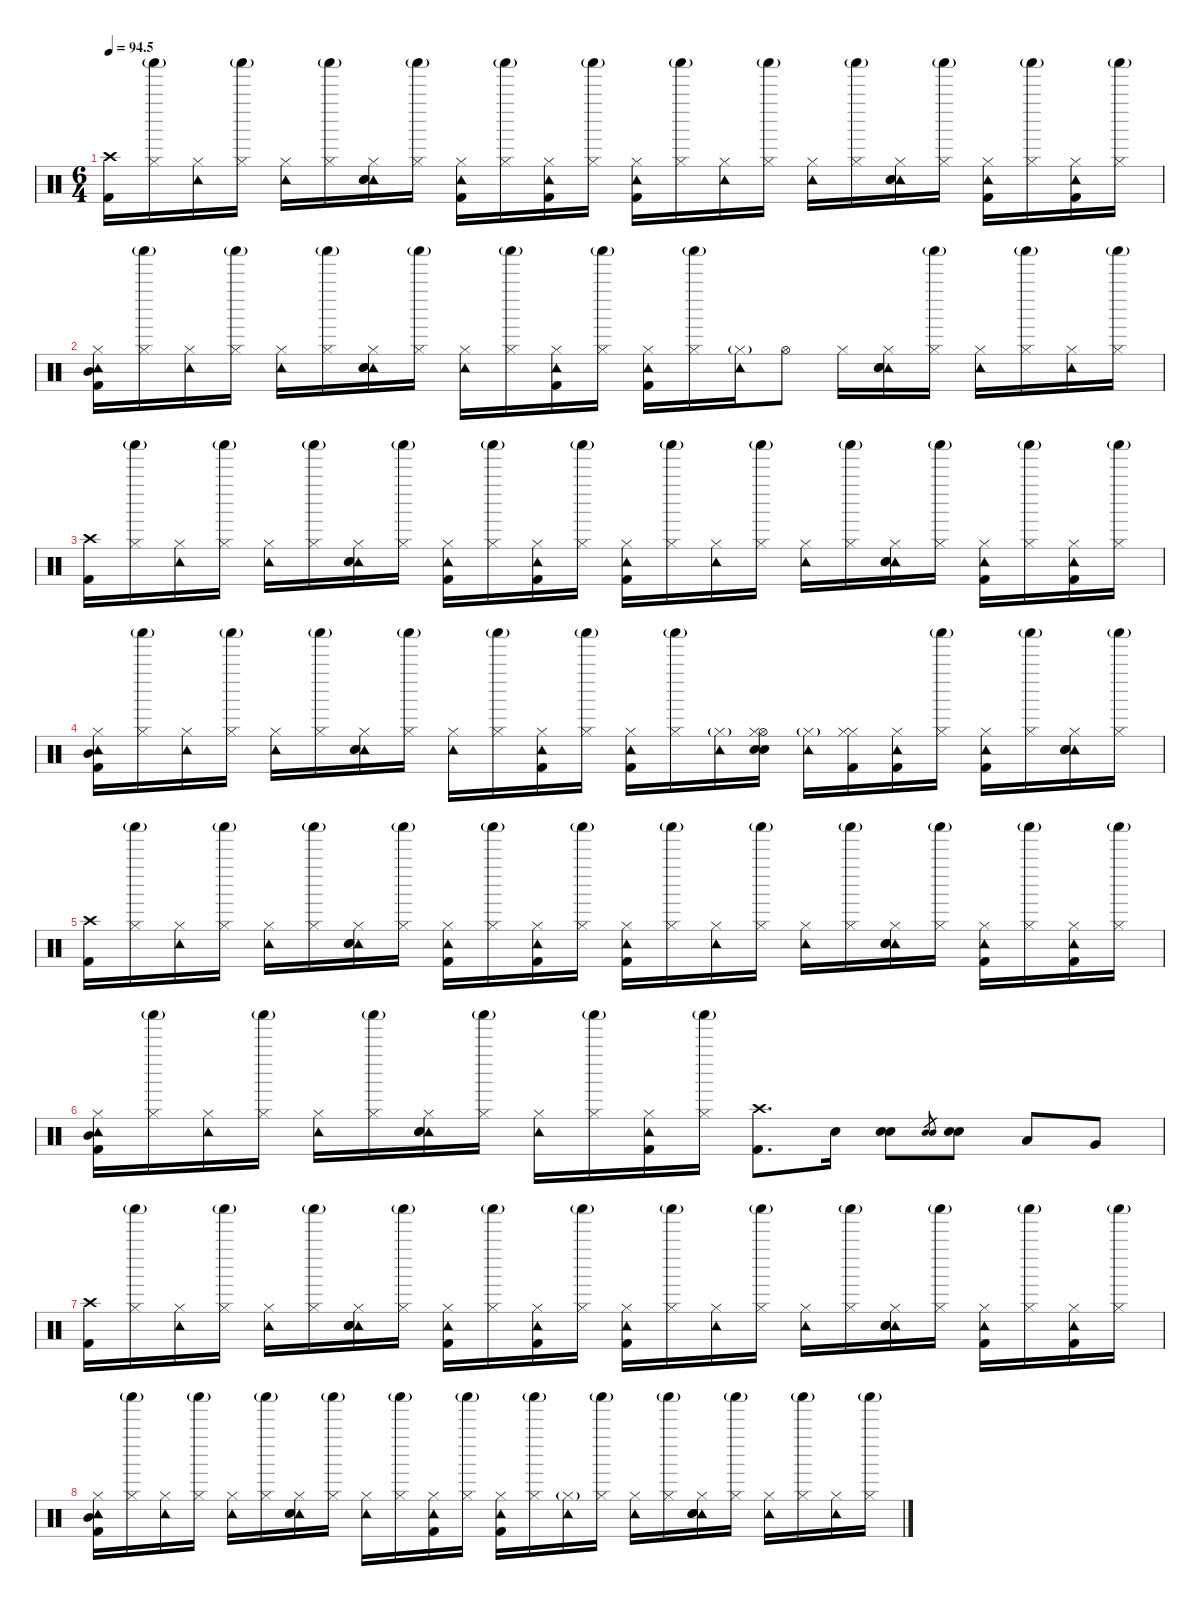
\defaultSystemsLayout 4
\hideDynamics
\bracketExtendMode nobrackets
\singleTrackTrackNamePolicy hidden
\multiTrackTrackNamePolicy hidden
\firstSystemTrackNameMode fullname
\firstSystemTrackNameOrientation horizontal
\otherSystemsTrackNameOrientation horizontal
\track ("Drums" "drm.") {defaultSystemsLayout 2 instrument percussion}
\staff {score}
\articulation defaults
\ts (6 4)
\tempo
94.5
\accidentals auto
\clef neutral
\ottava regular
\simile none
\ks c
("Crash high (hit)" "Kick (hit) 2").16{dy fff beam Down} ("Shaker (hit)"{g} "Hi-Hat (closed)").16{dy mf beam Down} ("Hi-Hat (closed)" "Tambourine (hit)").16{dy f beam Down} ("Shaker (hit)"{g} "Hi-Hat (closed)").16{dy mf beam Down} ("Hi-Hat (closed)" "Tambourine (hit)").16{dy f beam Down} ("Shaker (hit)"{g} "Hi-Hat (closed)").16{dy mf beam Down} ("Hi-Hat (closed)" "Tambourine (hit)" "Snare (hit) 2" "Metronome (bell)").16{dy f beam Down} ("Shaker (hit)"{g} "Hi-Hat (closed)").16{dy mf beam Down} ("Hi-Hat (closed)" "Tambourine (hit)" "Kick (hit) 2").16{dy f beam Down} ("Shaker (hit)"{g} "Hi-Hat (closed)").16{dy mf beam Down} ("Hi-Hat (closed)" "Tambourine (hit)" "Kick (hit) 2").16{dy f beam Down} ("Shaker (hit)"{g} "Hi-Hat (closed)").16{dy mf beam Down} ("Hi-Hat (closed)" "Tambourine (hit)" "Kick (hit) 2").16{dy f beam Down} ("Shaker (hit)"{g} "Hi-Hat (closed)").16{dy mf beam Down} ("Hi-Hat (closed)" "Tambourine (hit)").16{dy f beam Down} ("Shaker (hit)"{g} "Hi-Hat (closed)").16{dy mf beam Down} ("Hi-Hat (closed)" "Tambourine (hit)").16{dy f beam Down} ("Shaker (hit)"{g} "Hi-Hat (closed)").16{dy mf beam Down} ("Hi-Hat (closed)" "Tambourine (hit)" "Snare (hit) 2" "Metronome (bell)").16{dy f beam Down} ("Shaker (hit)"{g} "Hi-Hat (closed)").16{dy mf beam Down} ("Hi-Hat (closed)" "Tambourine (hit)" "Kick (hit) 2").16{dy f beam Down} ("Shaker (hit)"{g} "Hi-Hat (closed)").16{dy mf beam Down} ("Hi-Hat (closed)" "Tambourine (hit)" "Kick (hit) 2").16{dy f beam Down} ("Shaker (hit)"{g} "Hi-Hat (closed)").16{dy mf beam Down} |
("Hi-Hat (closed)" "Tambourine (hit)" "Mid Tom (hit)" "Kick (hit) 2").16{dy f beam Down} ("Shaker (hit)"{g} "Hi-Hat (closed)").16{dy mf beam Down} ("Hi-Hat (closed)" "Tambourine (hit)").16{dy f beam Down} ("Shaker (hit)"{g} "Hi-Hat (closed)").16{dy mf beam Down} ("Hi-Hat (closed)" "Tambourine (hit)").16{dy f beam Down} ("Shaker (hit)"{g} "Hi-Hat (closed)").16{dy mf beam Down} ("Hi-Hat (closed)" "Tambourine (hit)" "Snare (hit) 2" "Metronome (bell)").16{dy f beam Down} ("Shaker (hit)"{g} "Hi-Hat (closed)").16{dy mf beam Down} ("Hi-Hat (closed)" "Tambourine (hit)").16{dy f beam Down} ("Shaker (hit)"{g} "Hi-Hat (closed)").16{dy mf beam Down} ("Hi-Hat (closed)" "Tambourine (hit)" "Kick (hit) 2").16{dy f beam Down} ("Shaker (hit)"{g} "Hi-Hat (closed)").16{dy mf beam Down} ("Hi-Hat (closed)" "Tambourine (hit)" "Kick (hit) 2").16{dy f beam Down} ("Shaker (hit)"{g} "Hi-Hat (closed)").16{dy mf beam Down} ("Hi-Hat (closed)"{g} "Tambourine (hit)").16{dy mp beam Down} "Hi-Hat (open)".8{dy fff beam Down} "Hi-Hat (closed)".16{dy mf beam Down} ("Hi-Hat (closed)" "Tambourine (hit)" "Snare (hit) 2" "Metronome (bell)").16{dy f beam Down} ("Shaker (hit)"{g} "Hi-Hat (closed)").16{dy mf beam Down} ("Hi-Hat (closed)" "Tambourine (hit)").16{dy f beam Down} ("Shaker (hit)"{g} "Hi-Hat (closed)").16{dy mf beam Down} ("Hi-Hat (closed)" "Tambourine (hit)").16{dy f beam Down} ("Shaker (hit)"{g} "Hi-Hat (closed)").16{dy mf beam Down} |
("Crash high (hit)" "Kick (hit) 2").16{dy fff beam Down} ("Shaker (hit)"{g} "Hi-Hat (closed)").16{dy mf beam Down} ("Hi-Hat (closed)" "Tambourine (hit)").16{dy f beam Down} ("Shaker (hit)"{g} "Hi-Hat (closed)").16{dy mf beam Down} ("Hi-Hat (closed)" "Tambourine (hit)").16{dy f beam Down} ("Shaker (hit)"{g} "Hi-Hat (closed)").16{dy mf beam Down} ("Hi-Hat (closed)" "Tambourine (hit)" "Snare (hit) 2" "Metronome (bell)").16{dy f beam Down} ("Shaker (hit)"{g} "Hi-Hat (closed)").16{dy mf beam Down} ("Hi-Hat (closed)" "Tambourine (hit)" "Kick (hit) 2").16{dy f beam Down} ("Shaker (hit)"{g} "Hi-Hat (closed)").16{dy mf beam Down} ("Hi-Hat (closed)" "Tambourine (hit)" "Kick (hit) 2").16{dy f beam Down} ("Shaker (hit)"{g} "Hi-Hat (closed)").16{dy mf beam Down} ("Hi-Hat (closed)" "Tambourine (hit)" "Kick (hit) 2").16{dy f beam Down} ("Shaker (hit)"{g} "Hi-Hat (closed)").16{dy mf beam Down} ("Hi-Hat (closed)" "Tambourine (hit)").16{dy f beam Down} ("Shaker (hit)"{g} "Hi-Hat (closed)").16{dy mf beam Down} ("Hi-Hat (closed)" "Tambourine (hit)").16{dy f beam Down} ("Shaker (hit)"{g} "Hi-Hat (closed)").16{dy mf beam Down} ("Hi-Hat (closed)" "Tambourine (hit)" "Snare (hit) 2" "Metronome (bell)").16{dy f beam Down} ("Shaker (hit)"{g} "Hi-Hat (closed)").16{dy mf beam Down} ("Hi-Hat (closed)" "Tambourine (hit)" "Kick (hit) 2").16{dy f beam Down} ("Shaker (hit)"{g} "Hi-Hat (closed)").16{dy mf beam Down} ("Hi-Hat (closed)" "Tambourine (hit)" "Kick (hit) 2").16{dy f beam Down} ("Shaker (hit)"{g} "Hi-Hat (closed)").16{dy mf beam Down} |
("Hi-Hat (closed)" "Tambourine (hit)" "Mid Tom (hit)" "Kick (hit) 2").16{dy f beam Down} ("Shaker (hit)"{g} "Hi-Hat (closed)").16{dy mf beam Down} ("Hi-Hat (closed)" "Tambourine (hit)").16{dy f beam Down} ("Shaker (hit)"{g} "Hi-Hat (closed)").16{dy mf beam Down} ("Hi-Hat (closed)" "Tambourine (hit)").16{dy f beam Down} ("Shaker (hit)"{g} "Hi-Hat (closed)").16{dy mf beam Down} ("Hi-Hat (closed)" "Tambourine (hit)" "Snare (hit) 2" "Metronome (bell)").16{dy f beam Down} ("Shaker (hit)"{g} "Hi-Hat (closed)").16{dy mf beam Down} ("Hi-Hat (closed)" "Tambourine (hit)").16{dy f beam Down} ("Shaker (hit)"{g} "Hi-Hat (closed)").16{dy mf beam Down} ("Hi-Hat (closed)" "Tambourine (hit)" "Kick (hit) 2").16{dy f beam Down} ("Shaker (hit)"{g} "Hi-Hat (closed)").16{dy mf beam Down} ("Hi-Hat (closed)" "Tambourine (hit)" "Kick (hit) 2").16{dy f beam Down} ("Shaker (hit)"{g} "Hi-Hat (closed)").16{dy mf beam Down} ("Hi-Hat (closed)"{g} "Tambourine (hit)").16{dy mp beam Down} ("Hi-Hat (open)" "Hi-Hat (closed)" "Snare (hit) 2" "Metronome (bell)").16{dy f beam Down} ("Hi-Hat (closed)"{g} "Tambourine (hit)").16{dy mp beam Down} ("Hi-Hat (closed)" "Hi-Hat (closed)" "Kick (hit) 2").16{beam Down} ("Hi-Hat (closed)" "Tambourine (hit)" "Kick (hit) 2").16{dy f beam Down} ("Shaker (hit)"{g} "Hi-Hat (closed)").16{dy mf beam Down} ("Hi-Hat (closed)" "Tambourine (hit)" "Kick (hit) 2").16{dy f beam Down} ("Shaker (hit)"{g} "Hi-Hat (closed)").16{dy mf beam Down} ("Hi-Hat (closed)" "Tambourine (hit)" "Snare (hit) 2" "Metronome (bell)").16{dy f beam Down} ("Shaker (hit)"{g} "Hi-Hat (closed)").16{dy mf beam Down} |
("Crash high (hit)" "Kick (hit) 2").16{dy fff beam Down} ("Shaker (hit)"{g} "Hi-Hat (closed)").16{dy mf beam Down} ("Hi-Hat (closed)" "Tambourine (hit)").16{dy f beam Down} ("Shaker (hit)"{g} "Hi-Hat (closed)").16{dy mf beam Down} ("Hi-Hat (closed)" "Tambourine (hit)").16{dy f beam Down} ("Shaker (hit)"{g} "Hi-Hat (closed)").16{dy mf beam Down} ("Hi-Hat (closed)" "Tambourine (hit)" "Snare (hit) 2" "Metronome (bell)").16{dy f beam Down} ("Shaker (hit)"{g} "Hi-Hat (closed)").16{dy mf beam Down} ("Hi-Hat (closed)" "Tambourine (hit)" "Kick (hit) 2").16{dy f beam Down} ("Shaker (hit)"{g} "Hi-Hat (closed)").16{dy mf beam Down} ("Hi-Hat (closed)" "Tambourine (hit)" "Kick (hit) 2").16{dy f beam Down} ("Shaker (hit)"{g} "Hi-Hat (closed)").16{dy mf beam Down} ("Hi-Hat (closed)" "Tambourine (hit)" "Kick (hit) 2").16{dy f beam Down} ("Shaker (hit)"{g} "Hi-Hat (closed)").16{dy mf beam Down} ("Hi-Hat (closed)" "Tambourine (hit)").16{dy f beam Down} ("Shaker (hit)"{g} "Hi-Hat (closed)").16{dy mf beam Down} ("Hi-Hat (closed)" "Tambourine (hit)").16{dy f beam Down} ("Shaker (hit)"{g} "Hi-Hat (closed)").16{dy mf beam Down} ("Hi-Hat (closed)" "Tambourine (hit)" "Snare (hit) 2" "Metronome (bell)").16{dy f beam Down} ("Shaker (hit)"{g} "Hi-Hat (closed)").16{dy mf beam Down} ("Hi-Hat (closed)" "Tambourine (hit)" "Kick (hit) 2").16{dy f beam Down} ("Shaker (hit)"{g} "Hi-Hat (closed)").16{dy mf beam Down} ("Hi-Hat (closed)" "Tambourine (hit)" "Kick (hit) 2").16{dy f beam Down} ("Shaker (hit)"{g} "Hi-Hat (closed)").16{dy mf beam Down} |
("Hi-Hat (closed)" "Tambourine (hit)" "Mid Tom (hit)" "Kick (hit) 2").16{dy f beam Down} ("Shaker (hit)"{g} "Hi-Hat (closed)").16{dy mf beam Down} ("Hi-Hat (closed)" "Tambourine (hit)").16{dy f beam Down} ("Shaker (hit)"{g} "Hi-Hat (closed)").16{dy mf beam Down} ("Hi-Hat (closed)" "Tambourine (hit)").16{dy f beam Down} ("Shaker (hit)"{g} "Hi-Hat (closed)").16{dy mf beam Down} ("Hi-Hat (closed)" "Tambourine (hit)" "Snare (hit) 2" "Metronome (bell)").16{dy f beam Down} ("Shaker (hit)"{g} "Hi-Hat (closed)").16{dy mf beam Down} ("Hi-Hat (closed)" "Tambourine (hit)").16{dy f beam Down} ("Shaker (hit)"{g} "Hi-Hat (closed)").16{dy mf beam Down} ("Hi-Hat (closed)" "Tambourine (hit)" "Kick (hit) 2").16{dy f beam Down} ("Shaker (hit)"{g} "Hi-Hat (closed)").16{dy mf beam Down} ("Crash high (hit)" "Kick (hit) 2").8{d dy fff beam Down} "Snare (hit) 2".16{dy f beam Down} ("Snare (hit) 2" "Metronome (bell)").8{beam Down} ("Electric Snare (hit)" "Metronome (bell)").8{gr dy mp beam Up} ("Snare (hit) 2" "Metronome (bell)").8{dy f beam Up} "Low Tom (hit)".8{dy ff beam Up} "Very Low Tom (hit)".8{dy f beam Up} |
("Crash high (hit)" "Kick (hit) 2").16{dy fff beam Down} ("Shaker (hit)"{g} "Hi-Hat (closed)").16{dy mf beam Down} ("Hi-Hat (closed)" "Tambourine (hit)").16{dy f beam Down} ("Shaker (hit)"{g} "Hi-Hat (closed)").16{dy mf beam Down} ("Hi-Hat (closed)" "Tambourine (hit)").16{dy f beam Down} ("Shaker (hit)"{g} "Hi-Hat (closed)").16{dy mf beam Down} ("Hi-Hat (closed)" "Tambourine (hit)" "Snare (hit) 2" "Metronome (bell)").16{dy f beam Down} ("Shaker (hit)"{g} "Hi-Hat (closed)").16{dy mf beam Down} ("Hi-Hat (closed)" "Tambourine (hit)" "Kick (hit) 2").16{dy f beam Down} ("Shaker (hit)"{g} "Hi-Hat (closed)").16{dy mf beam Down} ("Hi-Hat (closed)" "Tambourine (hit)" "Kick (hit) 2").16{dy f beam Down} ("Shaker (hit)"{g} "Hi-Hat (closed)").16{dy mf beam Down} ("Hi-Hat (closed)" "Tambourine (hit)" "Kick (hit) 2").16{dy f beam Down} ("Shaker (hit)"{g} "Hi-Hat (closed)").16{dy mf beam Down} ("Hi-Hat (closed)" "Tambourine (hit)").16{dy f beam Down} ("Shaker (hit)"{g} "Hi-Hat (closed)").16{dy mf beam Down} ("Hi-Hat (closed)" "Tambourine (hit)").16{dy f beam Down} ("Shaker (hit)"{g} "Hi-Hat (closed)").16{dy mf beam Down} ("Hi-Hat (closed)" "Tambourine (hit)" "Snare (hit) 2" "Metronome (bell)").16{dy f beam Down} ("Shaker (hit)"{g} "Hi-Hat (closed)").16{dy mf beam Down} ("Hi-Hat (closed)" "Tambourine (hit)" "Kick (hit) 2").16{dy f beam Down} ("Shaker (hit)"{g} "Hi-Hat (closed)").16{dy mf beam Down} ("Hi-Hat (closed)" "Tambourine (hit)" "Kick (hit) 2").16{dy f beam Down} ("Shaker (hit)"{g} "Hi-Hat (closed)").16{dy mf beam Down} |
("Hi-Hat (closed)" "Tambourine (hit)" "Mid Tom (hit)" "Kick (hit) 2").16{dy f beam Down} ("Shaker (hit)"{g} "Hi-Hat (closed)").16{dy mf beam Down} ("Hi-Hat (closed)" "Tambourine (hit)").16{dy f beam Down} ("Shaker (hit)"{g} "Hi-Hat (closed)").16{dy mf beam Down} ("Hi-Hat (closed)" "Tambourine (hit)").16{dy f beam Down} ("Shaker (hit)"{g} "Hi-Hat (closed)").16{dy mf beam Down} ("Hi-Hat (closed)" "Tambourine (hit)" "Snare (hit) 2" "Metronome (bell)").16{dy f beam Down} ("Shaker (hit)"{g} "Hi-Hat (closed)").16{dy mf beam Down} ("Hi-Hat (closed)" "Tambourine (hit)").16{dy f beam Down} ("Shaker (hit)"{g} "Hi-Hat (closed)").16{dy mf beam Down} ("Hi-Hat (closed)" "Tambourine (hit)" "Kick (hit) 2").16{dy f beam Down} ("Shaker (hit)"{g} "Hi-Hat (closed)").16{dy mf beam Down} ("Hi-Hat (closed)" "Tambourine (hit)" "Kick (hit) 2").16{dy f beam Down} ("Shaker (hit)"{g} "Hi-Hat (closed)").16{dy mf beam Down} ("Hi-Hat (closed)"{g} "Tambourine (hit)").16{dy mp beam Down} ("Shaker (hit)"{g} "Hi-Hat (closed)").16{dy f beam Down} ("Hi-Hat (closed)" "Tambourine (hit)").16{beam Down} ("Shaker (hit)"{g} "Hi-Hat (closed)").16{dy mf beam Down} ("Hi-Hat (closed)" "Tambourine (hit)" "Snare (hit) 2" "Metronome (bell)").16{dy f beam Down} ("Shaker (hit)"{g} "Hi-Hat (closed)").16{dy mf beam Down} ("Hi-Hat (closed)" "Tambourine (hit)").16{dy f beam Down} ("Shaker (hit)"{g} "Hi-Hat (closed)").16{dy mf beam Down} ("Hi-Hat (closed)" "Tambourine (hit)").16{dy f beam Down} ("Shaker (hit)"{g} "Hi-Hat (closed)").16{dy mf beam Down}
